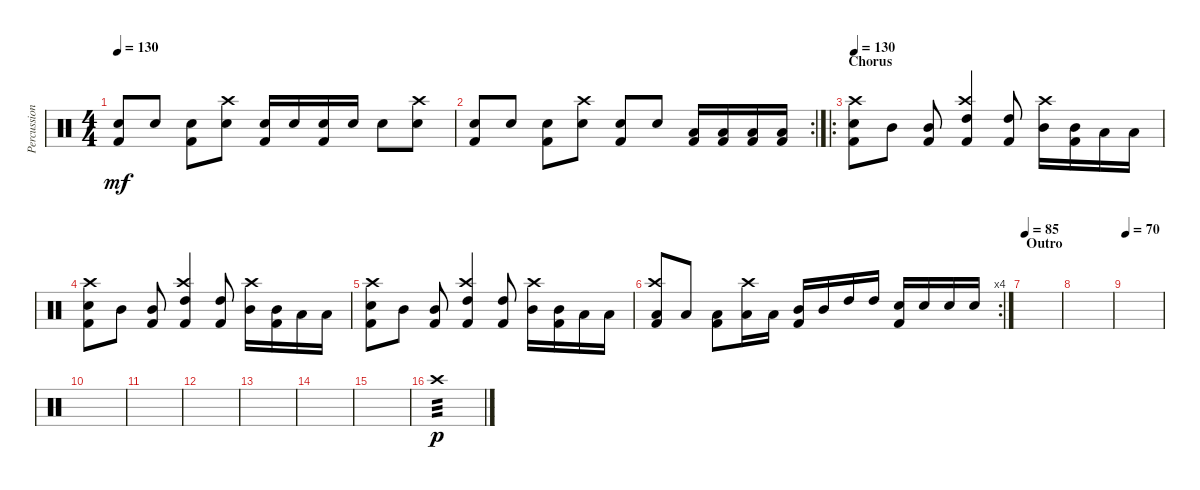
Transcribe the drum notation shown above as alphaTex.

\track ("Percussion" "Percussion") {instrument percussion}
\staff {score}
\articulation defaults
\ts (4 4)
\tempo 130
\clef neutral
\ks c
("Snare (hit) 2" "Kick (hit) 2").8{dy mf} "Snare (hit) 2".8 ("Snare (hit) 2" "Kick (hit) 2").8 ("Crash high (hit)" "Snare (hit) 2").8 ("Snare (hit) 2" "Kick (hit) 2").16 "Snare (hit) 2".16 ("Snare (hit) 2" "Kick (hit) 2").16 "Snare (hit) 2".16 "Snare (hit) 2".8 ("Crash high (hit)" "Snare (hit) 2").8 |
\rc 2
("Snare (hit) 2" "Kick (hit) 2").8 "Snare (hit) 2".8 ("Snare (hit) 2" "Kick (hit) 2").8 ("Crash high (hit)" "Snare (hit) 2").8 ("Snare (hit) 2" "Kick (hit) 2").8 "Snare (hit) 2".8 ("Low Tom (hit)" "Kick (hit) 2").16 ("Low Tom (hit)" "Kick (hit) 2").16 ("Low Tom (hit)" "Kick (hit) 2").16 ("Low Tom (hit)" "Kick (hit) 2").16 |
\ro
\section ("" "Chorus")
\tempo 130
("Crash high (hit)" "Snare (hit) 2" "Kick (hit) 2").8 "Mid Tom (hit)".8 ("Mid Tom (hit)" "Kick (hit) 2").8 ("Crash high (hit)" "High Tom (hit)" "Kick (hit) 2").4 ("High Tom (hit)" "Kick (hit) 2").8 ("Crash high (hit)" "Mid Tom (hit)").16 ("Mid Tom (hit)" "Kick (hit) 2").16 "Low Tom (hit)".16 "Low Tom (hit)".16 |
("Crash high (hit)" "Snare (hit) 2" "Kick (hit) 2").8 "Mid Tom (hit)".8 ("Mid Tom (hit)" "Kick (hit) 2").8 ("Crash high (hit)" "High Tom (hit)" "Kick (hit) 2").4 ("High Tom (hit)" "Kick (hit) 2").8 ("Crash high (hit)" "Mid Tom (hit)").16 ("Mid Tom (hit)" "Kick (hit) 2").16 "Low Tom (hit)".16 "Low Tom (hit)".16 |
("Crash high (hit)" "Snare (hit) 2" "Kick (hit) 2").8 "Mid Tom (hit)".8 ("Mid Tom (hit)" "Kick (hit) 2").8 ("Crash high (hit)" "High Tom (hit)" "Kick (hit) 2").4 ("High Tom (hit)" "Kick (hit) 2").8 ("Crash high (hit)" "Mid Tom (hit)").16 ("Mid Tom (hit)" "Kick (hit) 2").16 "Low Tom (hit)".16 "Low Tom (hit)".16 |
\rc 4
("Crash high (hit)" "Low Tom (hit)" "Kick (hit) 2").8 "Low Tom (hit)".8 ("Low Tom (hit)" "Kick (hit) 2").8 ("Crash high (hit)" "Low Tom (hit)").16 "Low Tom (hit)".16 ("Mid Tom (hit)" "Kick (hit) 2").16 "Mid Tom (hit)".16 "High Tom (hit)".16 "High Tom (hit)".16 ("Snare (hit) 2" "Kick (hit) 2").16 "Snare (hit) 2".16 "Snare (hit) 2".16 "Snare (hit) 2".16 |
\section ("" "Outro")
\tempo 85
|
|
\tempo 70
|
|
|
|
|
|
|
"Crash high (hit)".1{tp 3 dy p volume 8}
